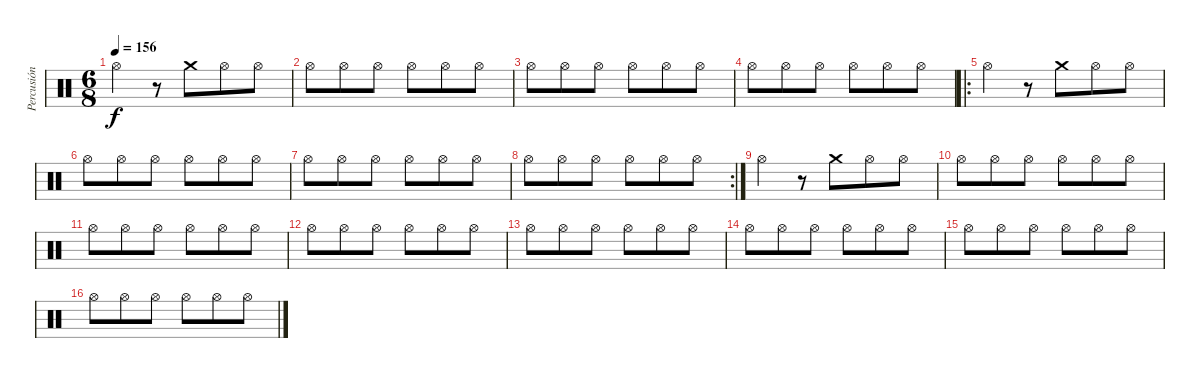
\track ("Percusión" "Percusión") {instrument percussion}
\staff {score}
\articulation defaults
\ts (6 8)
\tempo 156
\clef neutral
\ks c "Hi-Hat (open)".4{dy f}
r.8 "Crash medium (hit)".8 "Hi-Hat (open)".8 "Hi-Hat (open)".8 |
"Hi-Hat (open)".8 "Hi-Hat (open)".8 "Hi-Hat (open)".8 "Hi-Hat (open)".8 "Hi-Hat (open)".8 "Hi-Hat (open)".8 |
"Hi-Hat (open)".8 "Hi-Hat (open)".8 "Hi-Hat (open)".8 "Hi-Hat (open)".8 "Hi-Hat (open)".8 "Hi-Hat (open)".8 |
"Hi-Hat (open)".8 "Hi-Hat (open)".8 "Hi-Hat (open)".8 "Hi-Hat (open)".8 "Hi-Hat (open)".8 "Hi-Hat (open)".8 |
\ro "Hi-Hat (open)".4
r.8 "Crash medium (hit)".8 "Hi-Hat (open)".8 "Hi-Hat (open)".8 |
"Hi-Hat (open)".8 "Hi-Hat (open)".8 "Hi-Hat (open)".8 "Hi-Hat (open)".8 "Hi-Hat (open)".8 "Hi-Hat (open)".8 |
"Hi-Hat (open)".8 "Hi-Hat (open)".8 "Hi-Hat (open)".8 "Hi-Hat (open)".8 "Hi-Hat (open)".8 "Hi-Hat (open)".8 |
\rc 2 "Hi-Hat (open)".8 "Hi-Hat (open)".8 "Hi-Hat (open)".8 "Hi-Hat (open)".8 "Hi-Hat (open)".8 "Hi-Hat (open)".8
|
"Hi-Hat (open)".4 r.8 "Crash medium (hit)".8 "Hi-Hat (open)".8 "Hi-Hat (open)".8 |
"Hi-Hat (open)".8 "Hi-Hat (open)".8 "Hi-Hat (open)".8 "Hi-Hat (open)".8 "Hi-Hat (open)".8 "Hi-Hat (open)".8 |
"Hi-Hat (open)".8 "Hi-Hat (open)".8 "Hi-Hat (open)".8 "Hi-Hat (open)".8 "Hi-Hat (open)".8 "Hi-Hat (open)".8 |
"Hi-Hat (open)".8 "Hi-Hat (open)".8 "Hi-Hat (open)".8 "Hi-Hat (open)".8 "Hi-Hat (open)".8 "Hi-Hat (open)".8 |
"Hi-Hat (open)".8 "Hi-Hat (open)".8 "Hi-Hat (open)".8 "Hi-Hat (open)".8 "Hi-Hat (open)".8 "Hi-Hat (open)".8 |
"Hi-Hat (open)".8 "Hi-Hat (open)".8 "Hi-Hat (open)".8 "Hi-Hat (open)".8 "Hi-Hat (open)".8 "Hi-Hat (open)".8 |
"Hi-Hat (open)".8 "Hi-Hat (open)".8 "Hi-Hat (open)".8 "Hi-Hat (open)".8 "Hi-Hat (open)".8 "Hi-Hat (open)".8 |
"Hi-Hat (open)".8 "Hi-Hat (open)".8 "Hi-Hat (open)".8 "Hi-Hat (open)".8 "Hi-Hat (open)".8 "Hi-Hat (open)".8
